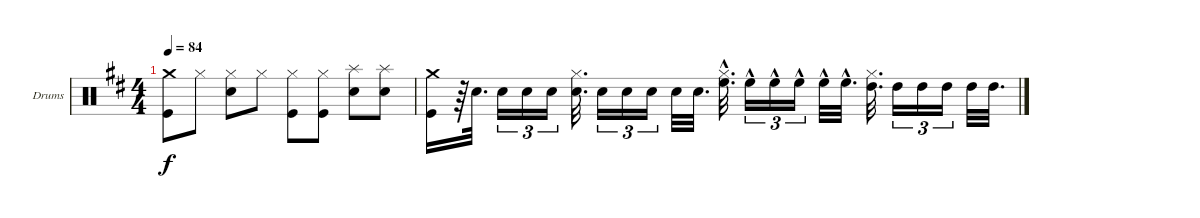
\bracketExtendMode nobrackets
\firstSystemTrackNameOrientation horizontal
\otherSystemsTrackNameOrientation horizontal
\defaultBarNumberDisplay FirstOfSystem
\track ("Drumkit" "Drums") {instrument percussion}
\staff {score}
\articulation defaults
\ts (4 4)
\tempo 84
\clef neutral
\ks d
("Kick (hit)" "Crash medium (hit)").8{dy f} "Hi-Hat (closed)".8 ("Snare (hit) 2" "Hi-Hat (closed)").8 "Hi-Hat (closed)".8 ("Kick (hit)" "Hi-Hat (closed)").8 ("Kick (hit)" "Hi-Hat (closed)").8 ("Snare (hit) 2" "Splash (hit)").8 ("Snare (hit) 2" "Splash (hit)").8 |
("Kick (hit)" "Crash medium (hit)").16 r.64 "Snare (hit) 2".32{d} "Snare (hit) 2".16{tu (3 2)} "Snare (hit) 2".16{tu (3 2)} "Snare (hit) 2".16{tu (3 2)} ("Snare (hit) 2" "Hi-Hat (closed)").32{d} "Snare (hit) 2".16{tu (3 2)} "Snare (hit) 2".16{tu (3 2)} "Snare (hit) 2".16{tu (3 2)} "Snare (hit) 2".32 "Snare (hit) 2".32{d} ("High Floor Tom (hit)"{hac} "Hi-Hat (closed)"{hac}).32{d} "High Floor Tom (hit)"{hac}.16{tu (3 2)} "High Floor Tom (hit)"{hac}.16{tu (3 2)} "High Floor Tom (hit)"{hac}.16{tu (3 2)} "High Floor Tom (hit)"{hac}.32 "High Floor Tom (hit)"{hac}.32{d} ("Hi-Hat (closed)" "High Tom (hit)").32{d} "High Tom (hit)".16{tu (3 2)} "High Tom (hit)".16{tu (3 2)} "High Tom (hit)".16{tu (3 2)} "High Tom (hit)".32 "High Tom (hit)".32{d}
